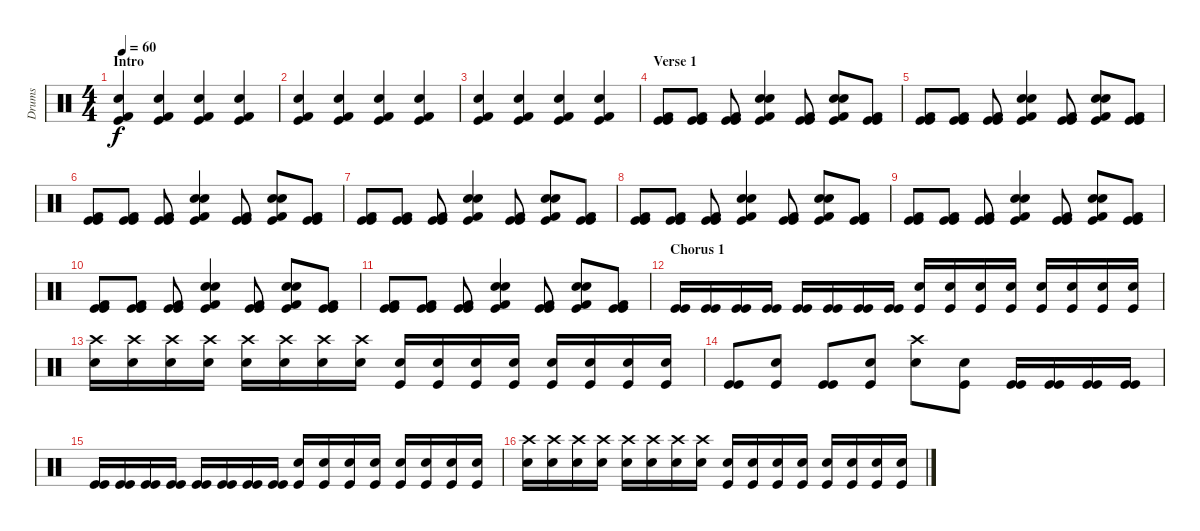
\track ("Drums" "Drums") {instrument percussion}
\staff {score}
\articulation defaults
\ts (4 4)
\section ("" "Intro")
\tempo 60
\clef neutral
\ks c
("Kick (hit)" "Kick (hit) 2" "Snare (hit) 2").4{dy f} ("Kick (hit)" "Kick (hit) 2" "Snare (hit) 2").4 ("Kick (hit)" "Kick (hit) 2" "Snare (hit) 2").4 ("Kick (hit)" "Kick (hit) 2" "Snare (hit) 2").4 |
("Kick (hit)" "Kick (hit) 2" "Snare (hit) 2").4 ("Kick (hit)" "Kick (hit) 2" "Snare (hit) 2").4 ("Kick (hit)" "Kick (hit) 2" "Snare (hit) 2").4 ("Kick (hit)" "Kick (hit) 2" "Snare (hit) 2").4 |
("Kick (hit)" "Kick (hit) 2" "Snare (hit) 2").4 ("Kick (hit)" "Kick (hit) 2" "Snare (hit) 2").4 ("Kick (hit)" "Kick (hit) 2" "Snare (hit) 2").4 ("Kick (hit)" "Kick (hit) 2" "Snare (hit) 2").4 |
\section ("" "Verse 1")
("Kick (hit)" "Kick (hit)" "Kick (hit) 2").8 ("Kick (hit)" "Kick (hit)" "Kick (hit) 2").8 ("Kick (hit)" "Kick (hit)" "Kick (hit) 2").8 ("Kick (hit)" "Kick (hit) 2" "Snare (hit) 2" "Snare (hit) 2").4 ("Kick (hit)" "Kick (hit)" "Kick (hit) 2").8 ("Kick (hit)" "Kick (hit) 2" "Snare (hit) 2" "Snare (hit) 2").8 ("Kick (hit)" "Kick (hit)" "Kick (hit) 2").8 |
("Kick (hit)" "Kick (hit)" "Kick (hit) 2").8 ("Kick (hit)" "Kick (hit)" "Kick (hit) 2").8 ("Kick (hit)" "Kick (hit)" "Kick (hit) 2").8 ("Kick (hit)" "Kick (hit) 2" "Snare (hit) 2" "Snare (hit) 2").4 ("Kick (hit)" "Kick (hit)" "Kick (hit) 2").8 ("Kick (hit)" "Kick (hit) 2" "Snare (hit) 2" "Snare (hit) 2").8 ("Kick (hit)" "Kick (hit)" "Kick (hit) 2").8 |
("Kick (hit)" "Kick (hit)" "Kick (hit) 2").8 ("Kick (hit)" "Kick (hit)" "Kick (hit) 2").8 ("Kick (hit)" "Kick (hit)" "Kick (hit) 2").8 ("Kick (hit)" "Kick (hit) 2" "Snare (hit) 2" "Snare (hit) 2").4 ("Kick (hit)" "Kick (hit)" "Kick (hit) 2").8 ("Kick (hit)" "Kick (hit) 2" "Snare (hit) 2" "Snare (hit) 2").8 ("Kick (hit)" "Kick (hit)" "Kick (hit) 2").8 |
("Kick (hit)" "Kick (hit)" "Kick (hit) 2").8 ("Kick (hit)" "Kick (hit)" "Kick (hit) 2").8 ("Kick (hit)" "Kick (hit)" "Kick (hit) 2").8 ("Kick (hit)" "Kick (hit) 2" "Snare (hit) 2" "Snare (hit) 2").4 ("Kick (hit)" "Kick (hit)" "Kick (hit) 2").8 ("Kick (hit)" "Kick (hit) 2" "Snare (hit) 2" "Snare (hit) 2").8 ("Kick (hit)" "Kick (hit)" "Kick (hit) 2").8 |
("Kick (hit)" "Kick (hit)" "Kick (hit) 2").8 ("Kick (hit)" "Kick (hit)" "Kick (hit) 2").8 ("Kick (hit)" "Kick (hit)" "Kick (hit) 2").8 ("Kick (hit)" "Kick (hit) 2" "Snare (hit) 2" "Snare (hit) 2").4 ("Kick (hit)" "Kick (hit)" "Kick (hit) 2").8 ("Kick (hit)" "Kick (hit) 2" "Snare (hit) 2" "Snare (hit) 2").8 ("Kick (hit)" "Kick (hit)" "Kick (hit) 2").8 |
("Kick (hit)" "Kick (hit)" "Kick (hit) 2").8 ("Kick (hit)" "Kick (hit)" "Kick (hit) 2").8 ("Kick (hit)" "Kick (hit)" "Kick (hit) 2").8 ("Kick (hit)" "Kick (hit) 2" "Snare (hit) 2" "Snare (hit) 2").4 ("Kick (hit)" "Kick (hit)" "Kick (hit) 2").8 ("Kick (hit)" "Kick (hit) 2" "Snare (hit) 2" "Snare (hit) 2").8 ("Kick (hit)" "Kick (hit)" "Kick (hit) 2").8 |
("Kick (hit)" "Kick (hit)" "Kick (hit) 2").8 ("Kick (hit)" "Kick (hit)" "Kick (hit) 2").8 ("Kick (hit)" "Kick (hit)" "Kick (hit) 2").8 ("Kick (hit)" "Kick (hit) 2" "Snare (hit) 2" "Snare (hit) 2").4 ("Kick (hit)" "Kick (hit)" "Kick (hit) 2").8 ("Kick (hit)" "Kick (hit) 2" "Snare (hit) 2" "Snare (hit) 2").8 ("Kick (hit)" "Kick (hit)" "Kick (hit) 2").8 |
("Kick (hit)" "Kick (hit)" "Kick (hit) 2").8 ("Kick (hit)" "Kick (hit)" "Kick (hit) 2").8 ("Kick (hit)" "Kick (hit)" "Kick (hit) 2").8 ("Kick (hit)" "Kick (hit) 2" "Snare (hit) 2" "Snare (hit) 2").4 ("Kick (hit)" "Kick (hit)" "Kick (hit) 2").8 ("Kick (hit)" "Kick (hit) 2" "Snare (hit) 2" "Snare (hit) 2").8 ("Kick (hit)" "Kick (hit)" "Kick (hit) 2").8 |
\section ("" "Chorus 1")
("Kick (hit)" "Kick (hit)").16 ("Kick (hit)" "Kick (hit)").16 ("Kick (hit)" "Kick (hit)").16 ("Kick (hit)" "Kick (hit)").16 ("Kick (hit)" "Kick (hit)").16 ("Kick (hit)" "Kick (hit)").16 ("Kick (hit)" "Kick (hit)").16 ("Kick (hit)" "Kick (hit)").16 ("Kick (hit)" "Snare (hit) 2").16 ("Kick (hit)" "Snare (hit) 2").16 ("Kick (hit)" "Snare (hit) 2").16 ("Kick (hit)" "Snare (hit) 2").16 ("Kick (hit)" "Snare (hit) 2").16 ("Kick (hit)" "Snare (hit) 2").16 ("Kick (hit)" "Snare (hit) 2").16 ("Kick (hit)" "Snare (hit) 2").16 |
("Snare (hit) 2" "Crash high (hit)").16 ("Snare (hit) 2" "Crash high (hit)").16 ("Snare (hit) 2" "Crash high (hit)").16 ("Snare (hit) 2" "Crash high (hit)").16 ("Snare (hit) 2" "Crash high (hit)").16 ("Snare (hit) 2" "Crash high (hit)").16 ("Snare (hit) 2" "Crash high (hit)").16 ("Snare (hit) 2" "Crash high (hit)").16 ("Kick (hit)" "Snare (hit) 2").16 ("Kick (hit)" "Snare (hit) 2").16 ("Kick (hit)" "Snare (hit) 2").16 ("Kick (hit)" "Snare (hit) 2").16 ("Kick (hit)" "Snare (hit) 2").16 ("Kick (hit)" "Snare (hit) 2").16 ("Kick (hit)" "Snare (hit) 2").16 ("Kick (hit)" "Snare (hit) 2").16 |
("Kick (hit)" "Kick (hit)").8 ("Kick (hit)" "Snare (hit) 2").8 ("Kick (hit)" "Kick (hit)").8 ("Kick (hit)" "Snare (hit) 2").8 ("Snare (hit) 2" "Crash high (hit)").8 ("Kick (hit)" "Snare (hit) 2").8 ("Kick (hit)" "Kick (hit)").16 ("Kick (hit)" "Kick (hit)").16 ("Kick (hit)" "Kick (hit)").16 ("Kick (hit)" "Kick (hit)").16 |
("Kick (hit)" "Kick (hit)").16 ("Kick (hit)" "Kick (hit)").16 ("Kick (hit)" "Kick (hit)").16 ("Kick (hit)" "Kick (hit)").16 ("Kick (hit)" "Kick (hit)").16 ("Kick (hit)" "Kick (hit)").16 ("Kick (hit)" "Kick (hit)").16 ("Kick (hit)" "Kick (hit)").16 ("Kick (hit)" "Snare (hit) 2").16 ("Kick (hit)" "Snare (hit) 2").16 ("Kick (hit)" "Snare (hit) 2").16 ("Kick (hit)" "Snare (hit) 2").16 ("Kick (hit)" "Snare (hit) 2").16 ("Kick (hit)" "Snare (hit) 2").16 ("Kick (hit)" "Snare (hit) 2").16 ("Kick (hit)" "Snare (hit) 2").16 |
("Snare (hit) 2" "Crash high (hit)").16 ("Snare (hit) 2" "Crash high (hit)").16 ("Snare (hit) 2" "Crash high (hit)").16 ("Snare (hit) 2" "Crash high (hit)").16 ("Snare (hit) 2" "Crash high (hit)").16 ("Snare (hit) 2" "Crash high (hit)").16 ("Snare (hit) 2" "Crash high (hit)").16 ("Snare (hit) 2" "Crash high (hit)").16 ("Kick (hit)" "Snare (hit) 2").16 ("Kick (hit)" "Snare (hit) 2").16 ("Kick (hit)" "Snare (hit) 2").16 ("Kick (hit)" "Snare (hit) 2").16 ("Kick (hit)" "Snare (hit) 2").16 ("Kick (hit)" "Snare (hit) 2").16 ("Kick (hit)" "Snare (hit) 2").16 ("Kick (hit)" "Snare (hit) 2").16
